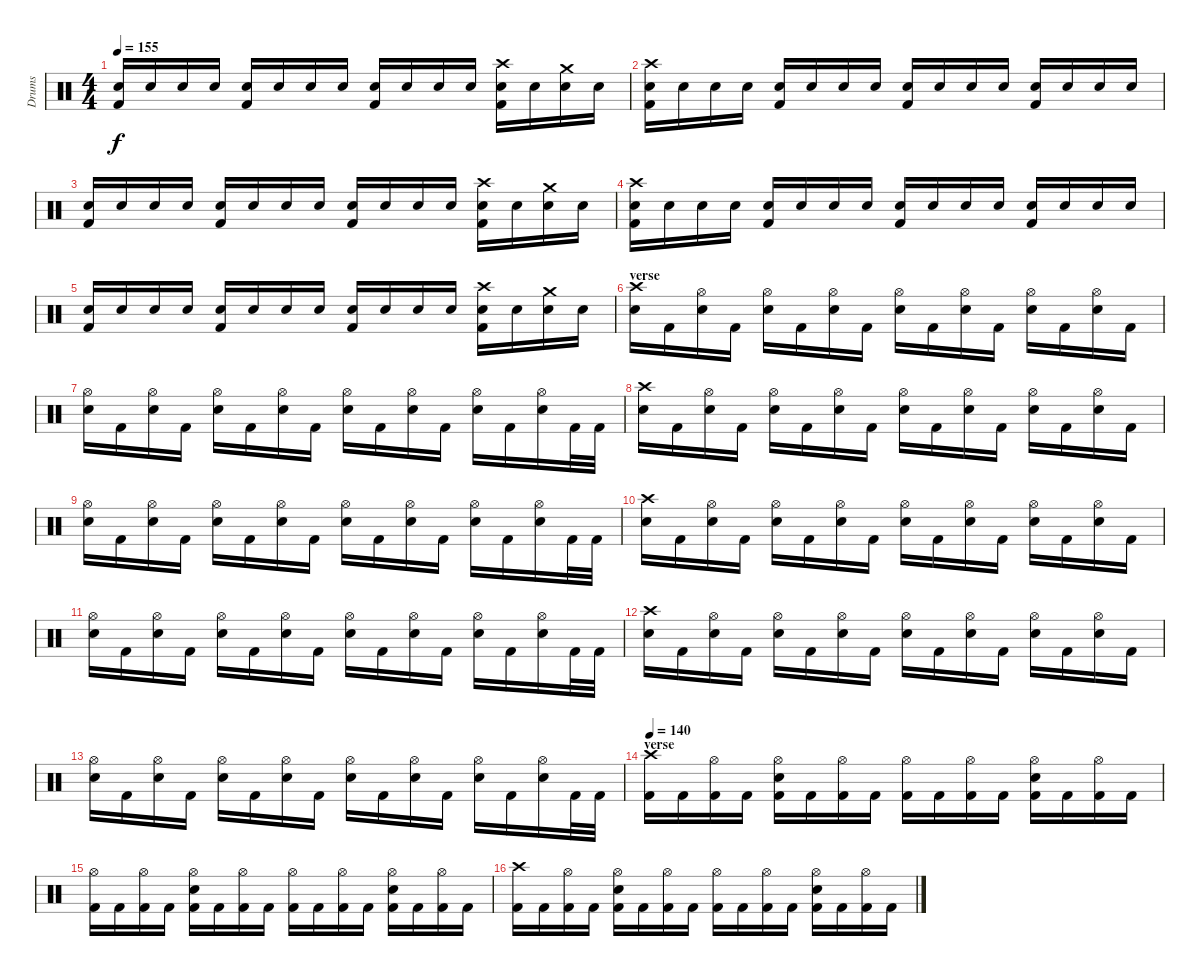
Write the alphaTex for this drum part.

\track ("Drums" "Drums") {instrument percussion}
\staff {score}
\articulation defaults
\ts (4 4)
\tempo 155
\clef neutral
\ks c
("Snare (hit) 2" "Kick (hit) 2").16{dy f} "Snare (hit) 2".16 "Snare (hit) 2".16 "Snare (hit) 2".16 ("Snare (hit) 2" "Kick (hit) 2").16 "Snare (hit) 2".16 "Snare (hit) 2".16 "Snare (hit) 2".16 ("Snare (hit) 2" "Kick (hit) 2").16 "Snare (hit) 2".16 "Snare (hit) 2".16 "Snare (hit) 2".16 ("Crash high (hit)" "Snare (hit) 2" "Kick (hit) 2").16 "Snare (hit) 2".16 ("Crash medium (hit)" "Snare (hit) 2").16 "Snare (hit) 2".16 |
("Crash high (hit)" "Snare (hit) 2" "Kick (hit) 2").16 "Snare (hit) 2".16 "Snare (hit) 2".16 "Snare (hit) 2".16 ("Snare (hit) 2" "Kick (hit) 2").16 "Snare (hit) 2".16 "Snare (hit) 2".16 "Snare (hit) 2".16 ("Snare (hit) 2" "Kick (hit) 2").16 "Snare (hit) 2".16 "Snare (hit) 2".16 "Snare (hit) 2".16 ("Snare (hit) 2" "Kick (hit) 2").16 "Snare (hit) 2".16 "Snare (hit) 2".16 "Snare (hit) 2".16 |
("Snare (hit) 2" "Kick (hit) 2").16 "Snare (hit) 2".16 "Snare (hit) 2".16 "Snare (hit) 2".16 ("Snare (hit) 2" "Kick (hit) 2").16 "Snare (hit) 2".16 "Snare (hit) 2".16 "Snare (hit) 2".16 ("Snare (hit) 2" "Kick (hit) 2").16 "Snare (hit) 2".16 "Snare (hit) 2".16 "Snare (hit) 2".16 ("Crash high (hit)" "Snare (hit) 2" "Kick (hit) 2").16 "Snare (hit) 2".16 ("Crash medium (hit)" "Snare (hit) 2").16 "Snare (hit) 2".16 |
("Crash high (hit)" "Snare (hit) 2" "Kick (hit) 2").16 "Snare (hit) 2".16 "Snare (hit) 2".16 "Snare (hit) 2".16 ("Snare (hit) 2" "Kick (hit) 2").16 "Snare (hit) 2".16 "Snare (hit) 2".16 "Snare (hit) 2".16 ("Snare (hit) 2" "Kick (hit) 2").16 "Snare (hit) 2".16 "Snare (hit) 2".16 "Snare (hit) 2".16 ("Snare (hit) 2" "Kick (hit) 2").16 "Snare (hit) 2".16 "Snare (hit) 2".16 "Snare (hit) 2".16 |
("Snare (hit) 2" "Kick (hit) 2").16 "Snare (hit) 2".16 "Snare (hit) 2".16 "Snare (hit) 2".16 ("Snare (hit) 2" "Kick (hit) 2").16 "Snare (hit) 2".16 "Snare (hit) 2".16 "Snare (hit) 2".16 ("Snare (hit) 2" "Kick (hit) 2").16 "Snare (hit) 2".16 "Snare (hit) 2".16 "Snare (hit) 2".16 ("Crash high (hit)" "Snare (hit) 2" "Kick (hit) 2").16 "Snare (hit) 2".16 ("Crash medium (hit)" "Snare (hit) 2").16 "Snare (hit) 2".16 |
\section ("" "verse")
("Crash high (hit)" "Snare (hit) 2").16 "Kick (hit) 2".16 ("Hi-Hat (open)" "Snare (hit) 2").16 "Kick (hit) 2".16 ("Hi-Hat (open)" "Snare (hit) 2").16 "Kick (hit) 2".16 ("Hi-Hat (open)" "Snare (hit) 2").16 "Kick (hit) 2".16 ("Hi-Hat (open)" "Snare (hit) 2").16 "Kick (hit) 2".16 ("Hi-Hat (open)" "Snare (hit) 2").16 "Kick (hit) 2".16 ("Hi-Hat (open)" "Snare (hit) 2").16 "Kick (hit) 2".16 ("Hi-Hat (open)" "Snare (hit) 2").16 "Kick (hit) 2".16 |
("Hi-Hat (open)" "Snare (hit) 2").16 "Kick (hit) 2".16 ("Hi-Hat (open)" "Snare (hit) 2").16 "Kick (hit) 2".16 ("Hi-Hat (open)" "Snare (hit) 2").16 "Kick (hit) 2".16 ("Hi-Hat (open)" "Snare (hit) 2").16 "Kick (hit) 2".16 ("Hi-Hat (open)" "Snare (hit) 2").16 "Kick (hit) 2".16 ("Hi-Hat (open)" "Snare (hit) 2").16 "Kick (hit) 2".16 ("Hi-Hat (open)" "Snare (hit) 2").16 "Kick (hit) 2".16 ("Hi-Hat (open)" "Snare (hit) 2").16 "Kick (hit) 2".32 "Kick (hit) 2".32 |
("Crash high (hit)" "Snare (hit) 2").16 "Kick (hit) 2".16 ("Hi-Hat (open)" "Snare (hit) 2").16 "Kick (hit) 2".16 ("Hi-Hat (open)" "Snare (hit) 2").16 "Kick (hit) 2".16 ("Hi-Hat (open)" "Snare (hit) 2").16 "Kick (hit) 2".16 ("Hi-Hat (open)" "Snare (hit) 2").16 "Kick (hit) 2".16 ("Hi-Hat (open)" "Snare (hit) 2").16 "Kick (hit) 2".16 ("Hi-Hat (open)" "Snare (hit) 2").16 "Kick (hit) 2".16 ("Hi-Hat (open)" "Snare (hit) 2").16 "Kick (hit) 2".16 |
("Hi-Hat (open)" "Snare (hit) 2").16 "Kick (hit) 2".16 ("Hi-Hat (open)" "Snare (hit) 2").16 "Kick (hit) 2".16 ("Hi-Hat (open)" "Snare (hit) 2").16 "Kick (hit) 2".16 ("Hi-Hat (open)" "Snare (hit) 2").16 "Kick (hit) 2".16 ("Hi-Hat (open)" "Snare (hit) 2").16 "Kick (hit) 2".16 ("Hi-Hat (open)" "Snare (hit) 2").16 "Kick (hit) 2".16 ("Hi-Hat (open)" "Snare (hit) 2").16 "Kick (hit) 2".16 ("Hi-Hat (open)" "Snare (hit) 2").16 "Kick (hit) 2".32 "Kick (hit) 2".32 |
("Crash high (hit)" "Snare (hit) 2").16 "Kick (hit) 2".16 ("Hi-Hat (open)" "Snare (hit) 2").16 "Kick (hit) 2".16 ("Hi-Hat (open)" "Snare (hit) 2").16 "Kick (hit) 2".16 ("Hi-Hat (open)" "Snare (hit) 2").16 "Kick (hit) 2".16 ("Hi-Hat (open)" "Snare (hit) 2").16 "Kick (hit) 2".16 ("Hi-Hat (open)" "Snare (hit) 2").16 "Kick (hit) 2".16 ("Hi-Hat (open)" "Snare (hit) 2").16 "Kick (hit) 2".16 ("Hi-Hat (open)" "Snare (hit) 2").16 "Kick (hit) 2".16 |
("Hi-Hat (open)" "Snare (hit) 2").16 "Kick (hit) 2".16 ("Hi-Hat (open)" "Snare (hit) 2").16 "Kick (hit) 2".16 ("Hi-Hat (open)" "Snare (hit) 2").16 "Kick (hit) 2".16 ("Hi-Hat (open)" "Snare (hit) 2").16 "Kick (hit) 2".16 ("Hi-Hat (open)" "Snare (hit) 2").16 "Kick (hit) 2".16 ("Hi-Hat (open)" "Snare (hit) 2").16 "Kick (hit) 2".16 ("Hi-Hat (open)" "Snare (hit) 2").16 "Kick (hit) 2".16 ("Hi-Hat (open)" "Snare (hit) 2").16 "Kick (hit) 2".32 "Kick (hit) 2".32 |
("Crash high (hit)" "Snare (hit) 2").16 "Kick (hit) 2".16 ("Hi-Hat (open)" "Snare (hit) 2").16 "Kick (hit) 2".16 ("Hi-Hat (open)" "Snare (hit) 2").16 "Kick (hit) 2".16 ("Hi-Hat (open)" "Snare (hit) 2").16 "Kick (hit) 2".16 ("Hi-Hat (open)" "Snare (hit) 2").16 "Kick (hit) 2".16 ("Hi-Hat (open)" "Snare (hit) 2").16 "Kick (hit) 2".16 ("Hi-Hat (open)" "Snare (hit) 2").16 "Kick (hit) 2".16 ("Hi-Hat (open)" "Snare (hit) 2").16 "Kick (hit) 2".16 |
("Hi-Hat (open)" "Snare (hit) 2").16 "Kick (hit) 2".16 ("Hi-Hat (open)" "Snare (hit) 2").16 "Kick (hit) 2".16 ("Hi-Hat (open)" "Snare (hit) 2").16 "Kick (hit) 2".16 ("Hi-Hat (open)" "Snare (hit) 2").16 "Kick (hit) 2".16 ("Hi-Hat (open)" "Snare (hit) 2").16 "Kick (hit) 2".16 ("Hi-Hat (open)" "Snare (hit) 2").16 "Kick (hit) 2".16 ("Hi-Hat (open)" "Snare (hit) 2").16 "Kick (hit) 2".16 ("Hi-Hat (open)" "Snare (hit) 2").16 "Kick (hit) 2".32 "Kick (hit) 2".32 |
\section ("" "verse")
\tempo 140
("Crash high (hit)" "Kick (hit) 2").16 "Kick (hit) 2".16 ("Hi-Hat (open)" "Kick (hit) 2").16 "Kick (hit) 2".16 ("Hi-Hat (open)" "Snare (hit) 2" "Kick (hit) 2").16 "Kick (hit) 2".16 ("Hi-Hat (open)" "Kick (hit) 2").16 "Kick (hit) 2".16 ("Hi-Hat (open)" "Kick (hit) 2").16 "Kick (hit) 2".16 ("Hi-Hat (open)" "Kick (hit) 2").16 "Kick (hit) 2".16 ("Hi-Hat (open)" "Snare (hit) 2" "Kick (hit) 2").16 "Kick (hit) 2".16 ("Hi-Hat (open)" "Kick (hit) 2").16 "Kick (hit) 2".16 |
("Hi-Hat (open)" "Kick (hit) 2").16 "Kick (hit) 2".16 ("Hi-Hat (open)" "Kick (hit) 2").16 "Kick (hit) 2".16 ("Hi-Hat (open)" "Snare (hit) 2" "Kick (hit) 2").16 "Kick (hit) 2".16 ("Hi-Hat (open)" "Kick (hit) 2").16 "Kick (hit) 2".16 ("Hi-Hat (open)" "Kick (hit) 2").16 "Kick (hit) 2".16 ("Hi-Hat (open)" "Kick (hit) 2").16 "Kick (hit) 2".16 ("Hi-Hat (open)" "Snare (hit) 2" "Kick (hit) 2").16 "Kick (hit) 2".16 ("Hi-Hat (open)" "Kick (hit) 2").16 "Kick (hit) 2".16 |
("Crash high (hit)" "Kick (hit) 2").16 "Kick (hit) 2".16 ("Hi-Hat (open)" "Kick (hit) 2").16 "Kick (hit) 2".16 ("Hi-Hat (open)" "Snare (hit) 2" "Kick (hit) 2").16 "Kick (hit) 2".16 ("Hi-Hat (open)" "Kick (hit) 2").16 "Kick (hit) 2".16 ("Hi-Hat (open)" "Kick (hit) 2").16 "Kick (hit) 2".16 ("Hi-Hat (open)" "Kick (hit) 2").16 "Kick (hit) 2".16 ("Hi-Hat (open)" "Snare (hit) 2" "Kick (hit) 2").16 "Kick (hit) 2".16 ("Hi-Hat (open)" "Kick (hit) 2").16 "Kick (hit) 2".16
